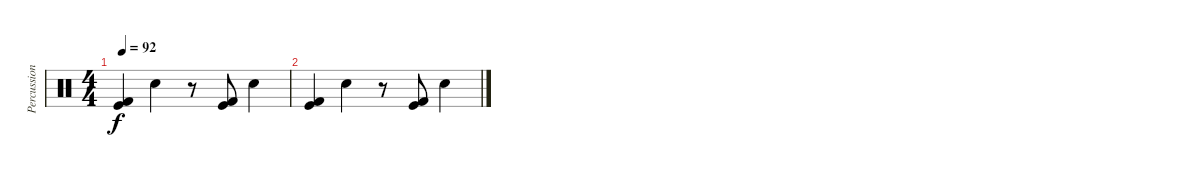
\track ("Percussion" "Percussion") {instrument percussion}
\staff {score}
\articulation defaults
\ts (4 4)
\tempo 92
\clef neutral
\ks c
("Kick (hit)" "Kick (hit) 2").4{dy f} "Snare (hit) 2".4 r.8 ("Kick (hit)" "Kick (hit) 2").8 "Snare (hit) 2".4 |
("Kick (hit)" "Kick (hit) 2").4 "Snare (hit) 2".4 r.8 ("Kick (hit)" "Kick (hit) 2").8 "Snare (hit) 2".4
